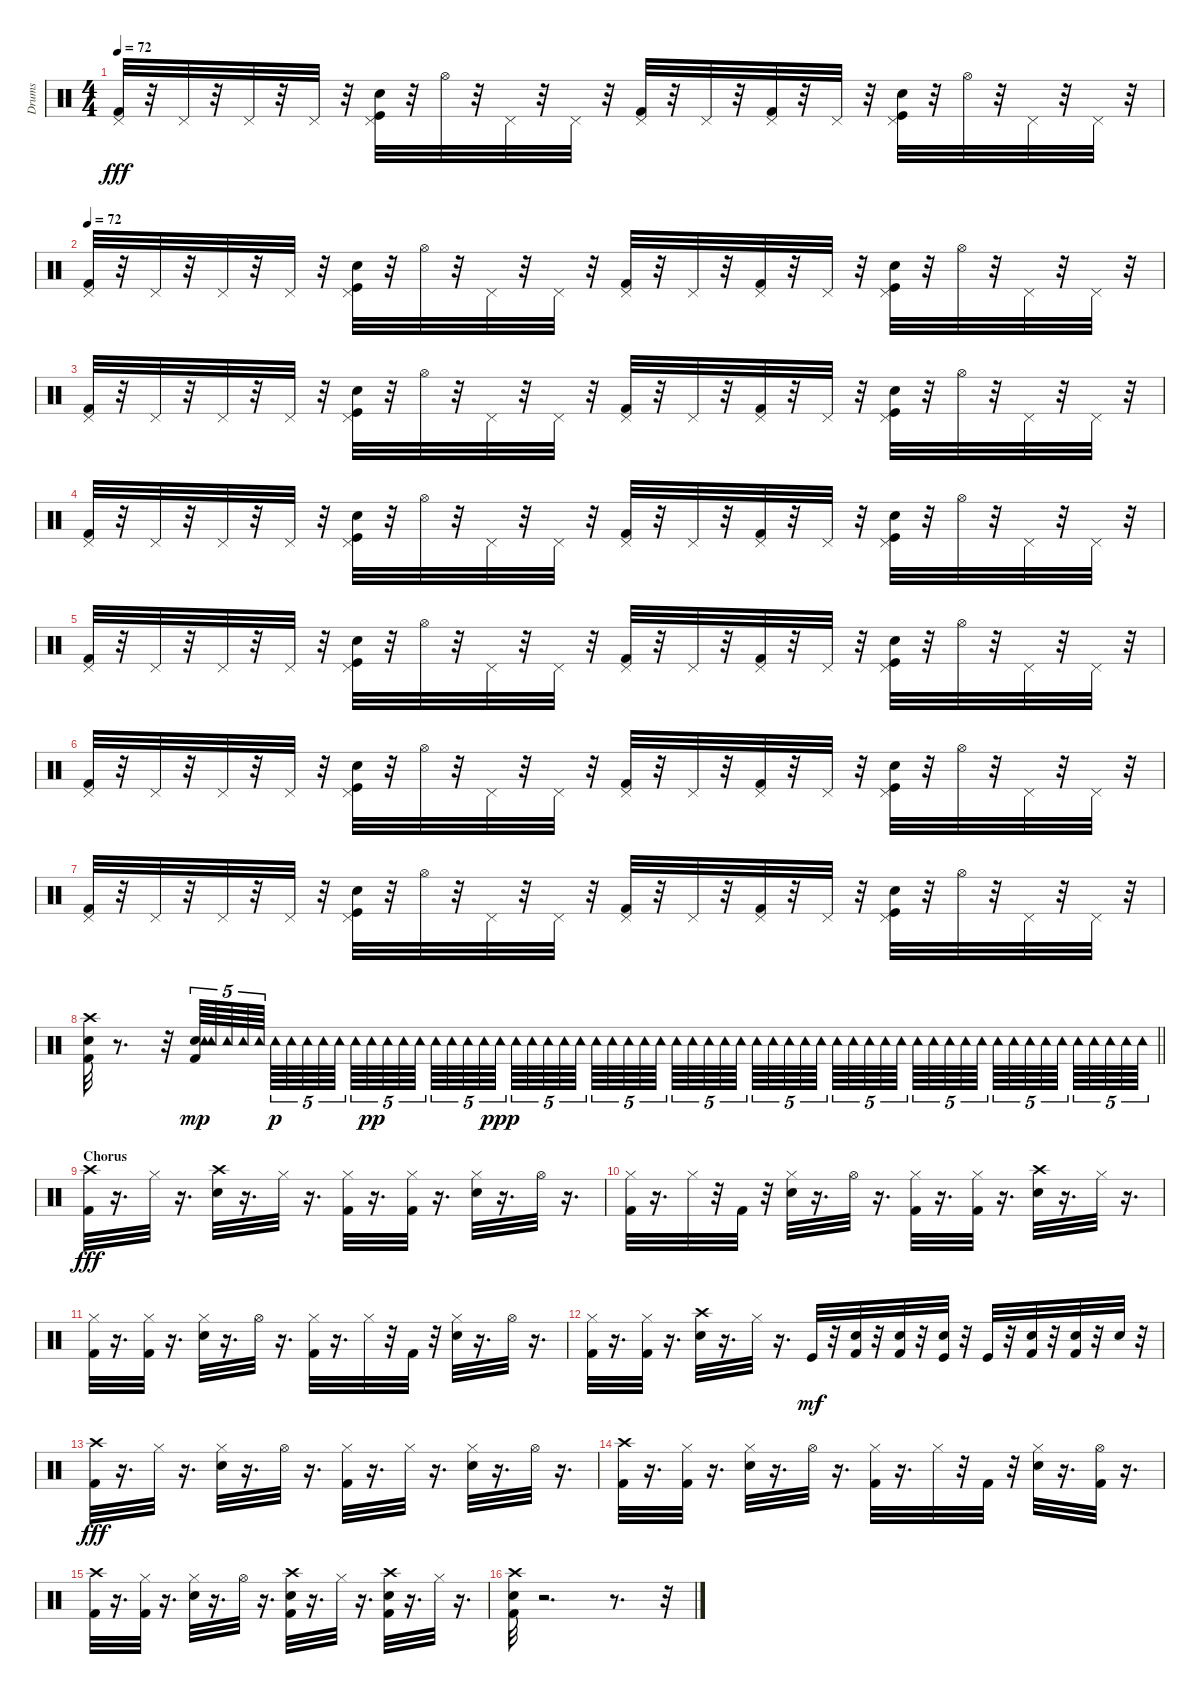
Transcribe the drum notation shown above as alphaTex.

\track ("Drums" "Drums") {instrument percussion}
\staff {score}
\articulation defaults
\ts (4 4)
\tempo 72
\clef neutral
\ks c
("Kick (hit) 2" "Pedal Hi-Hat (hit)").32{dy fff volume 14} r.32 "Pedal Hi-Hat (hit)".32 r.32 "Pedal Hi-Hat (hit)".32 r.32 "Pedal Hi-Hat (hit)".32 r.32 ("Snare (hit) 2" "Kick (hit)" "Pedal Hi-Hat (hit)").32 r.32 "Hi-Hat (open)".32 r.32 "Pedal Hi-Hat (hit)".32 r.32 "Pedal Hi-Hat (hit)".32 r.32 ("Kick (hit) 2" "Pedal Hi-Hat (hit)").32 r.32 "Pedal Hi-Hat (hit)".32 r.32 ("Kick (hit) 2" "Pedal Hi-Hat (hit)").32 r.32 "Pedal Hi-Hat (hit)".32 r.32 ("Snare (hit) 2" "Kick (hit)" "Pedal Hi-Hat (hit)").32 r.32 "Hi-Hat (open)".32 r.32 "Pedal Hi-Hat (hit)".32 r.32 "Pedal Hi-Hat (hit)".32 r.32 |
\tempo 72
("Kick (hit) 2" "Pedal Hi-Hat (hit)").32 r.32 "Pedal Hi-Hat (hit)".32 r.32 "Pedal Hi-Hat (hit)".32 r.32 "Pedal Hi-Hat (hit)".32 r.32 ("Snare (hit) 2" "Kick (hit)" "Pedal Hi-Hat (hit)").32 r.32 "Hi-Hat (open)".32 r.32 "Pedal Hi-Hat (hit)".32 r.32 "Pedal Hi-Hat (hit)".32 r.32 ("Kick (hit) 2" "Pedal Hi-Hat (hit)").32 r.32 "Pedal Hi-Hat (hit)".32 r.32 ("Kick (hit) 2" "Pedal Hi-Hat (hit)").32 r.32 "Pedal Hi-Hat (hit)".32 r.32 ("Snare (hit) 2" "Kick (hit)" "Pedal Hi-Hat (hit)").32 r.32 "Hi-Hat (open)".32 r.32 "Pedal Hi-Hat (hit)".32 r.32 "Pedal Hi-Hat (hit)".32 r.32 |
("Kick (hit) 2" "Pedal Hi-Hat (hit)").32 r.32 "Pedal Hi-Hat (hit)".32 r.32 "Pedal Hi-Hat (hit)".32 r.32 "Pedal Hi-Hat (hit)".32 r.32 ("Snare (hit) 2" "Kick (hit)" "Pedal Hi-Hat (hit)").32 r.32 "Hi-Hat (open)".32 r.32 "Pedal Hi-Hat (hit)".32 r.32 "Pedal Hi-Hat (hit)".32 r.32 ("Kick (hit) 2" "Pedal Hi-Hat (hit)").32 r.32 "Pedal Hi-Hat (hit)".32 r.32 ("Kick (hit) 2" "Pedal Hi-Hat (hit)").32 r.32 "Pedal Hi-Hat (hit)".32 r.32 ("Snare (hit) 2" "Kick (hit)" "Pedal Hi-Hat (hit)").32 r.32 "Hi-Hat (open)".32 r.32 "Pedal Hi-Hat (hit)".32 r.32 "Pedal Hi-Hat (hit)".32 r.32 |
("Kick (hit) 2" "Pedal Hi-Hat (hit)").32 r.32 "Pedal Hi-Hat (hit)".32 r.32 "Pedal Hi-Hat (hit)".32 r.32 "Pedal Hi-Hat (hit)".32 r.32 ("Snare (hit) 2" "Kick (hit)" "Pedal Hi-Hat (hit)").32 r.32 "Hi-Hat (open)".32 r.32 "Pedal Hi-Hat (hit)".32 r.32 "Pedal Hi-Hat (hit)".32 r.32 ("Kick (hit) 2" "Pedal Hi-Hat (hit)").32 r.32 "Pedal Hi-Hat (hit)".32 r.32 ("Kick (hit) 2" "Pedal Hi-Hat (hit)").32 r.32 "Pedal Hi-Hat (hit)".32 r.32 ("Snare (hit) 2" "Kick (hit)" "Pedal Hi-Hat (hit)").32 r.32 "Hi-Hat (open)".32 r.32 "Pedal Hi-Hat (hit)".32 r.32 "Pedal Hi-Hat (hit)".32 r.32 |
("Kick (hit) 2" "Pedal Hi-Hat (hit)").32 r.32 "Pedal Hi-Hat (hit)".32 r.32 "Pedal Hi-Hat (hit)".32 r.32 "Pedal Hi-Hat (hit)".32 r.32 ("Snare (hit) 2" "Kick (hit)" "Pedal Hi-Hat (hit)").32 r.32 "Hi-Hat (open)".32 r.32 "Pedal Hi-Hat (hit)".32 r.32 "Pedal Hi-Hat (hit)".32 r.32 ("Kick (hit) 2" "Pedal Hi-Hat (hit)").32 r.32 "Pedal Hi-Hat (hit)".32 r.32 ("Kick (hit) 2" "Pedal Hi-Hat (hit)").32 r.32 "Pedal Hi-Hat (hit)".32 r.32 ("Snare (hit) 2" "Kick (hit)" "Pedal Hi-Hat (hit)").32 r.32 "Hi-Hat (open)".32 r.32 "Pedal Hi-Hat (hit)".32 r.32 "Pedal Hi-Hat (hit)".32 r.32 |
("Kick (hit) 2" "Pedal Hi-Hat (hit)").32 r.32 "Pedal Hi-Hat (hit)".32 r.32 "Pedal Hi-Hat (hit)".32 r.32 "Pedal Hi-Hat (hit)".32 r.32 ("Snare (hit) 2" "Kick (hit)" "Pedal Hi-Hat (hit)").32 r.32 "Hi-Hat (open)".32 r.32 "Pedal Hi-Hat (hit)".32 r.32 "Pedal Hi-Hat (hit)".32 r.32 ("Kick (hit) 2" "Pedal Hi-Hat (hit)").32 r.32 "Pedal Hi-Hat (hit)".32 r.32 ("Kick (hit) 2" "Pedal Hi-Hat (hit)").32 r.32 "Pedal Hi-Hat (hit)".32 r.32 ("Snare (hit) 2" "Kick (hit)" "Pedal Hi-Hat (hit)").32 r.32 "Hi-Hat (open)".32 r.32 "Pedal Hi-Hat (hit)".32 r.32 "Pedal Hi-Hat (hit)".32 r.32 |
("Kick (hit) 2" "Pedal Hi-Hat (hit)").32 r.32 "Pedal Hi-Hat (hit)".32 r.32 "Pedal Hi-Hat (hit)".32 r.32 "Pedal Hi-Hat (hit)".32 r.32 ("Snare (hit) 2" "Kick (hit)" "Pedal Hi-Hat (hit)").32 r.32 "Hi-Hat (open)".32 r.32 "Pedal Hi-Hat (hit)".32 r.32 "Pedal Hi-Hat (hit)".32 r.32 ("Kick (hit) 2" "Pedal Hi-Hat (hit)").32 r.32 "Pedal Hi-Hat (hit)".32 r.32 ("Kick (hit) 2" "Pedal Hi-Hat (hit)").32 r.32 "Pedal Hi-Hat (hit)".32 r.32 ("Snare (hit) 2" "Kick (hit)" "Pedal Hi-Hat (hit)").32 r.32 "Hi-Hat (open)".32 r.32 "Pedal Hi-Hat (hit)".32 r.32 "Pedal Hi-Hat (hit)".32 r.32 |
\barLineRight lightlight
("Kick (hit) 2" "Crash high (hit)" "Snare (hit) 2").32 r.8{d} r.32 ("Kick (hit) 2" "Snare (hit) 2" "Tambourine (hit)").64{tu (5 4) dy mp} "Tambourine (hit)".64{tu (5 4)} "Tambourine (hit)".64{tu (5 4)} "Tambourine (hit)".64{tu (5 4)} "Tambourine (hit)".64{tu (5 4) beam splitsecondary} "Tambourine (hit)".64{tu (5 4) dy p} "Tambourine (hit)".64{tu (5 4)} "Tambourine (hit)".64{tu (5 4)} "Tambourine (hit)".64{tu (5 4)} "Tambourine (hit)".64{tu (5 4) beam splitsecondary} "Tambourine (hit)".64{tu (5 4)} "Tambourine (hit)".64{tu (5 4) dy pp} "Tambourine (hit)".64{tu (5 4)} "Tambourine (hit)".64{tu (5 4)} "Tambourine (hit)".64{tu (5 4) beam splitsecondary} "Tambourine (hit)".64{tu (5 4)} "Tambourine (hit)".64{tu (5 4)} "Tambourine (hit)".64{tu (5 4)} "Tambourine (hit)".64{tu (5 4)} "Tambourine (hit)".64{tu (5 4) dy ppp} "Tambourine (hit)".64{tu (5 4)} "Tambourine (hit)".64{tu (5 4)} "Tambourine (hit)".64{tu (5 4)} "Tambourine (hit)".64{tu (5 4)} "Tambourine (hit)".64{tu (5 4) beam splitsecondary} "Tambourine (hit)".64{tu (5 4)} "Tambourine (hit)".64{tu (5 4)} "Tambourine (hit)".64{tu (5 4)} "Tambourine (hit)".64{tu (5 4)} "Tambourine (hit)".64{tu (5 4) beam splitsecondary} "Tambourine (hit)".64{tu (5 4)} "Tambourine (hit)".64{tu (5 4)} "Tambourine (hit)".64{tu (5 4)} "Tambourine (hit)".64{tu (5 4)} "Tambourine (hit)".64{tu (5 4) beam splitsecondary} "Tambourine (hit)".64{tu (5 4)} "Tambourine (hit)".64{tu (5 4)} "Tambourine (hit)".64{tu (5 4)} "Tambourine (hit)".64{tu (5 4)} "Tambourine (hit)".64{tu (5 4)} "Tambourine (hit)".64{tu (5 4)} "Tambourine (hit)".64{tu (5 4)} "Tambourine (hit)".64{tu (5 4)} "Tambourine (hit)".64{tu (5 4)} "Tambourine (hit)".64{tu (5 4) beam splitsecondary} "Tambourine (hit)".64{tu (5 4)} "Tambourine (hit)".64{tu (5 4)} "Tambourine (hit)".64{tu (5 4)} "Tambourine (hit)".64{tu (5 4)} "Tambourine (hit)".64{tu (5 4) beam splitsecondary} "Tambourine (hit)".64{tu (5 4)} "Tambourine (hit)".64{tu (5 4)} "Tambourine (hit)".64{tu (5 4)} "Tambourine (hit)".64{tu (5 4)} "Tambourine (hit)".64{tu (5 4) beam splitsecondary} "Tambourine (hit)".64{tu (5 4)} "Tambourine (hit)".64{tu (5 4)} "Tambourine (hit)".64{tu (5 4)} "Tambourine (hit)".64{tu (5 4)} "Tambourine (hit)".64{tu (5 4)} |
\section ("" "Chorus")
("Kick (hit) 2" "Crash high (hit)").32{dy fff} r.16{d} "Hi-Hat (closed)".32 r.16{d} ("Crash high (hit)" "Snare (hit) 2").32 r.16{d} "Hi-Hat (closed)".32 r.16{d} ("Kick (hit) 2" "Hi-Hat (closed)").32 r.16{d} ("Kick (hit) 2" "Hi-Hat (closed)").32 r.16{d} ("Hi-Hat (closed)" "Snare (hit) 2").32 r.16{d} "Hi-Hat (open)".32 r.16{d} |
("Kick (hit) 2" "Hi-Hat (closed)").32 r.16{d} "Hi-Hat (closed)".32 r.32 "Kick (hit) 2".32 r.32 ("Hi-Hat (closed)" "Snare (hit) 2").32 r.16{d} "Hi-Hat (open)".32 r.16{d} ("Kick (hit) 2" "Hi-Hat (closed)").32 r.16{d} ("Kick (hit) 2" "Hi-Hat (closed)").32 r.16{d} ("Crash high (hit)" "Snare (hit) 2").32 r.16{d} "Hi-Hat (closed)".32 r.16{d} |
("Kick (hit) 2" "Hi-Hat (closed)").32 r.16{d} ("Kick (hit) 2" "Hi-Hat (closed)").32 r.16{d} ("Hi-Hat (closed)" "Snare (hit) 2").32 r.16{d} "Hi-Hat (open)".32 r.16{d} ("Kick (hit) 2" "Hi-Hat (closed)").32 r.16{d} "Hi-Hat (closed)".32 r.32 "Kick (hit) 2".32 r.32 ("Hi-Hat (closed)" "Snare (hit) 2").32 r.16{d} "Hi-Hat (open)".32 r.16{d} |
("Kick (hit) 2" "Hi-Hat (closed)").32 r.16{d} ("Kick (hit) 2" "Hi-Hat (closed)").32 r.16{d} ("Crash high (hit)" "Snare (hit) 2").32 r.16{d} "Hi-Hat (closed)".32 r.16{d} "Kick (hit)".32{dy mf} r.32 ("Kick (hit) 2" "Snare (hit) 2").32 r.32 ("Kick (hit) 2" "Snare (hit) 2").32 r.32 ("Snare (hit) 2" "Kick (hit)").32 r.32 "Kick (hit)".32 r.32 ("Kick (hit) 2" "Snare (hit) 2").32 r.32 ("Kick (hit) 2" "Snare (hit) 2").32 r.32 "Snare (hit) 2".32 r.32 |
("Kick (hit) 2" "Crash high (hit)").32{dy fff} r.16{d} "Hi-Hat (closed)".32 r.16{d} ("Hi-Hat (closed)" "Snare (hit) 2").32 r.16{d} "Hi-Hat (open)".32 r.16{d} ("Kick (hit) 2" "Hi-Hat (closed)").32 r.16{d} "Hi-Hat (closed)".32 r.16{d} ("Hi-Hat (closed)" "Snare (hit) 2").32 r.16{d} "Hi-Hat (open)".32 r.16{d} |
("Kick (hit) 2" "Crash high (hit)").32 r.16{d} ("Kick (hit) 2" "Hi-Hat (closed)").32 r.16{d} ("Hi-Hat (closed)" "Snare (hit) 2").32 r.16{d} "Hi-Hat (open)".32 r.16{d} ("Kick (hit) 2" "Hi-Hat (closed)").32 r.16{d} "Hi-Hat (closed)".32 r.32 "Kick (hit) 2".32 r.32 ("Hi-Hat (closed)" "Snare (hit) 2").32 r.16{d} ("Kick (hit) 2" "Hi-Hat (open)").32 r.16{d} |
("Kick (hit) 2" "Crash high (hit)").32 r.16{d} ("Kick (hit) 2" "Hi-Hat (closed)").32 r.16{d} ("Hi-Hat (closed)" "Snare (hit) 2").32 r.16{d} "Hi-Hat (open)".32 r.16{d} ("Kick (hit) 2" "Crash high (hit)" "Snare (hit) 2").32 r.16{d} "Hi-Hat (closed)".32 r.16{d} ("Kick (hit) 2" "Crash high (hit)" "Snare (hit) 2").32 r.16{d} "Hi-Hat (closed)".32 r.16{d} |
("Kick (hit) 2" "Crash high (hit)" "Snare (hit) 2").32 r.2{d} r.8{d} r.32
